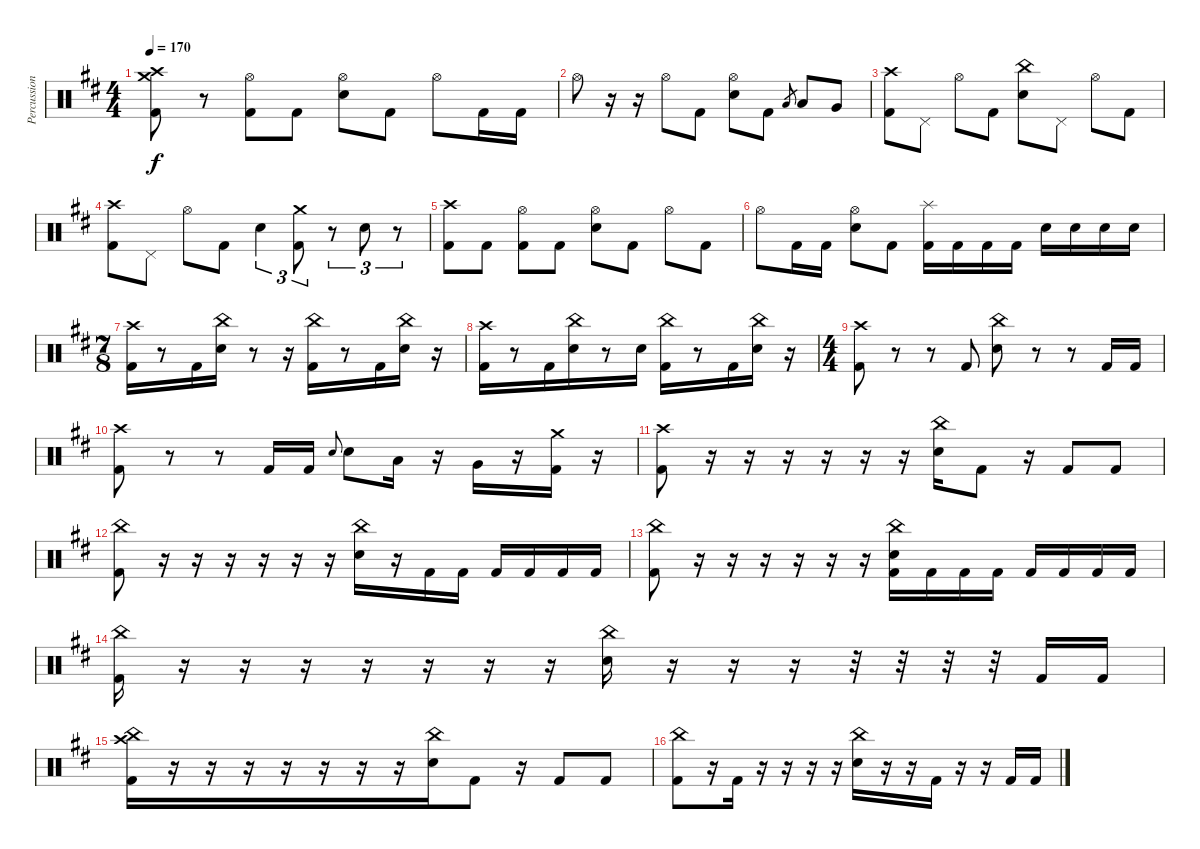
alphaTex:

\track ("Percussion" "Percussion") {instrument percussion}
\staff {score}
\articulation defaults
\ts (4 4)
\tempo 170
\clef neutral
\ks bminor
("Crash high (hit)" "Crash medium (hit)" "Kick (hit) 2").8{dy f} r.8 ("Hi-Hat (open)" "Kick (hit) 2").8 "Kick (hit) 2".8 ("Hi-Hat (open)" "Electric Snare (hit)").8 "Kick (hit) 2".8 "Hi-Hat (open)".8 "Kick (hit) 2".16 "Kick (hit) 2".16 |
"Hi-Hat (open)".8 r.16 r.16 "Hi-Hat (open)".8 "Kick (hit) 2".8 ("Hi-Hat (open)" "Electric Snare (hit)").8 "Kick (hit) 2".8 "Low Tom (hit)".8{gr} "Low Tom (hit)".8 "Very Low Tom (hit)".8 |
("Crash high (hit)" "Kick (hit) 2").8 "Pedal Hi-Hat (hit)".8 "Hi-Hat (open)".8 "Kick (hit) 2".8 ("China (hit)" "Electric Snare (hit)").8 "Pedal Hi-Hat (hit)".8 "Hi-Hat (open)".8 "Kick (hit) 2".8 |
("Crash high (hit)" "Kick (hit) 2").8 "Pedal Hi-Hat (hit)".8 "Hi-Hat (open)".8 "Kick (hit) 2".8 "Electric Snare (hit)".4{tu (3 2)} ("Crash medium (hit)" "Kick (hit) 2").8{tu (3 2)} r.8{tu (3 2)} "Electric Snare (hit)".8{tu (3 2)} r.8{tu (3 2)} |
("Crash high (hit)" "Kick (hit) 2").8 "Kick (hit) 2".8 ("Hi-Hat (open)" "Kick (hit) 2").8 "Kick (hit) 2".8 ("Hi-Hat (open)" "Electric Snare (hit)").8 "Kick (hit) 2".8 "Hi-Hat (open)".8 "Kick (hit) 2".8 |
"Hi-Hat (open)".8 "Kick (hit) 2".16 "Kick (hit) 2".16 ("Hi-Hat (open)" "Electric Snare (hit)").8 "Kick (hit) 2".8 ("Splash (hit)" "Kick (hit) 2").16 "Kick (hit) 2".16 "Kick (hit) 2".16 "Kick (hit) 2".16 "Electric Snare (hit)".16 "Electric Snare (hit)".16 "Electric Snare (hit)".16 "Electric Snare (hit)".16 |
\ts (7 8)
("Crash high (hit)" "Kick (hit) 2").16 r.8 "Kick (hit) 2".16 ("China (hit)" "Electric Snare (hit)").16 r.8 r.16 ("China (hit)" "Kick (hit) 2").16 r.8 "Kick (hit) 2".16 ("China (hit)" "Electric Snare (hit)").16 r.16 |
("Crash high (hit)" "Kick (hit) 2").16 r.8 "Kick (hit) 2".16 ("China (hit)" "Electric Snare (hit)").16 r.8 "Electric Snare (hit)".16 ("China (hit)" "Kick (hit) 2").16 r.8 "Kick (hit) 2".16 ("China (hit)" "Electric Snare (hit)").16 r.16 |
\ts (4 4)
("Crash high (hit)" "Kick (hit) 2").8 r.8 r.8 "Kick (hit) 2".8 ("China (hit)" "Electric Snare (hit)").8 r.8 r.8 "Kick (hit) 2".16 "Kick (hit) 2".16 |
("Crash high (hit)" "Kick (hit) 2").8 r.8 r.8 "Kick (hit) 2".16 "Kick (hit) 2".16 "Electric Snare (hit)".8{gr onbeat} "Electric Snare (hit)".8 "Low Tom (hit)".16 r.16 "Very Low Tom (hit)".16 r.16 ("Crash medium (hit)" "Kick (hit) 2").16 r.16 |
("Crash high (hit)" "Kick (hit) 2").8 r.16 r.16 r.16 r.16 r.16 r.16 ("China (hit)" "Electric Snare (hit)").16 "Kick (hit) 2".8 r.16 "Kick (hit) 2".8 "Kick (hit) 2".8 |
("China (hit)" "Kick (hit) 2").8 r.16 r.16 r.16 r.16 r.16 r.16 ("China (hit)" "Electric Snare (hit)").16 r.16 "Kick (hit) 2".16 "Kick (hit) 2".16 "Kick (hit) 2".16 "Kick (hit) 2".16 "Kick (hit) 2".16 "Kick (hit) 2".16 |
("China (hit)" "Kick (hit) 2").8 r.16 r.16 r.16 r.16 r.16 r.16 ("China (hit)" "Electric Snare (hit)" "Kick (hit) 2").16 "Kick (hit) 2".16 "Kick (hit) 2".16 "Kick (hit) 2".16 "Kick (hit) 2".16 "Kick (hit) 2".16 "Kick (hit) 2".16 "Kick (hit) 2".16 |
("China (hit)" "Kick (hit) 2").16 r.16 r.16 r.16 r.16 r.16 r.16 r.16 ("China (hit)" "Electric Snare (hit)").16 r.16 r.16 r.16 r.32 r.32 r.32 r.32{beam merge} "Kick (hit) 2".16 "Kick (hit) 2".16 |
("China (hit)" "Crash high (hit)" "Kick (hit) 2").16{beam merge} r.16 r.16 r.16 r.16 r.16 r.16 r.16 ("China (hit)" "Electric Snare (hit)").16 "Kick (hit) 2".8 r.16 "Kick (hit) 2".8 "Kick (hit) 2".8 |
("China (hit)" "Kick (hit) 2").8 r.16 "Kick (hit) 2".16 r.16 r.16 r.16 r.16 ("China (hit)" "Electric Snare (hit)").16 r.16 r.16 "Kick (hit) 2".16 r.16 r.16 "Kick (hit) 2".16 "Kick (hit) 2".16
